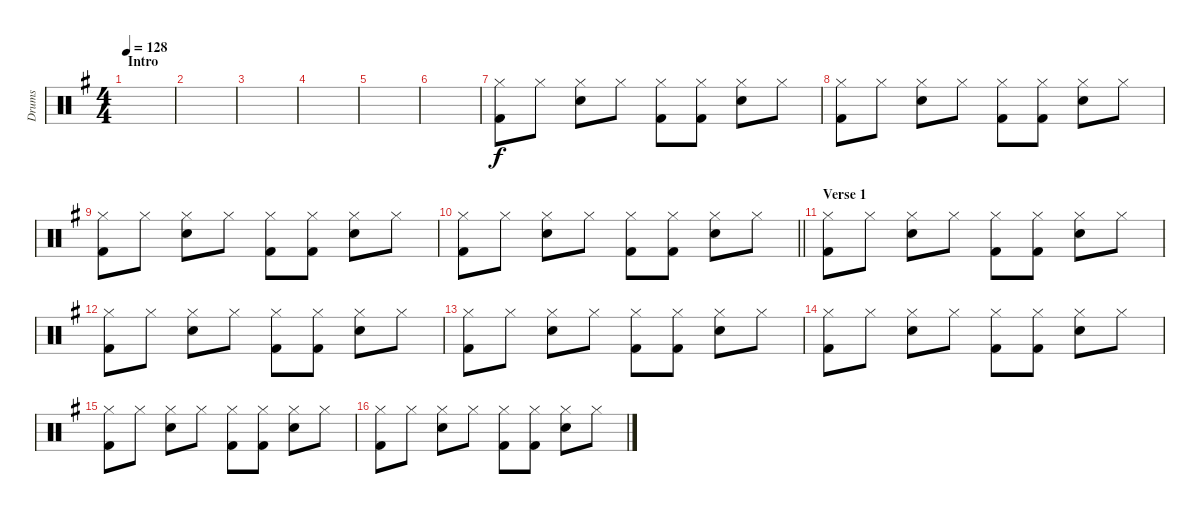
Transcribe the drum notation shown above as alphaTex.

\track ("Drums" "Drums") {instrument percussion}
\staff {score}
\articulation defaults
\ts (4 4)
\section ("" "Intro")
\tempo 128
\clef neutral
\ks g
|
|
|
|
|
|
("Hi-Hat (closed)" "Kick (hit) 2").8 "Hi-Hat (closed)".8 ("Hi-Hat (closed)" "Snare (hit) 2").8 "Hi-Hat (closed)".8 ("Hi-Hat (closed)" "Kick (hit) 2").8 ("Hi-Hat (closed)" "Kick (hit) 2").8 ("Hi-Hat (closed)" "Snare (hit) 2").8 "Hi-Hat (closed)".8 |
("Hi-Hat (closed)" "Kick (hit) 2").8 "Hi-Hat (closed)".8 ("Hi-Hat (closed)" "Snare (hit) 2").8 "Hi-Hat (closed)".8 ("Hi-Hat (closed)" "Kick (hit) 2").8 ("Hi-Hat (closed)" "Kick (hit) 2").8 ("Hi-Hat (closed)" "Snare (hit) 2").8 "Hi-Hat (closed)".8 |
("Hi-Hat (closed)" "Kick (hit) 2").8 "Hi-Hat (closed)".8 ("Hi-Hat (closed)" "Snare (hit) 2").8 "Hi-Hat (closed)".8 ("Hi-Hat (closed)" "Kick (hit) 2").8 ("Hi-Hat (closed)" "Kick (hit) 2").8 ("Hi-Hat (closed)" "Snare (hit) 2").8 "Hi-Hat (closed)".8 |
\barLineRight lightlight
("Hi-Hat (closed)" "Kick (hit) 2").8 "Hi-Hat (closed)".8 ("Hi-Hat (closed)" "Snare (hit) 2").8 "Hi-Hat (closed)".8 ("Hi-Hat (closed)" "Kick (hit) 2").8 ("Hi-Hat (closed)" "Kick (hit) 2").8 ("Hi-Hat (closed)" "Snare (hit) 2").8 "Hi-Hat (closed)".8 |
\section ("" "Verse 1")
("Hi-Hat (closed)" "Kick (hit) 2").8 "Hi-Hat (closed)".8 ("Hi-Hat (closed)" "Snare (hit) 2").8 "Hi-Hat (closed)".8 ("Hi-Hat (closed)" "Kick (hit) 2").8 ("Hi-Hat (closed)" "Kick (hit) 2").8 ("Hi-Hat (closed)" "Snare (hit) 2").8 "Hi-Hat (closed)".8 |
("Hi-Hat (closed)" "Kick (hit) 2").8 "Hi-Hat (closed)".8 ("Hi-Hat (closed)" "Snare (hit) 2").8 "Hi-Hat (closed)".8 ("Hi-Hat (closed)" "Kick (hit) 2").8 ("Hi-Hat (closed)" "Kick (hit) 2").8 ("Hi-Hat (closed)" "Snare (hit) 2").8 "Hi-Hat (closed)".8 |
("Hi-Hat (closed)" "Kick (hit) 2").8 "Hi-Hat (closed)".8 ("Hi-Hat (closed)" "Snare (hit) 2").8 "Hi-Hat (closed)".8 ("Hi-Hat (closed)" "Kick (hit) 2").8 ("Hi-Hat (closed)" "Kick (hit) 2").8 ("Hi-Hat (closed)" "Snare (hit) 2").8 "Hi-Hat (closed)".8 |
("Hi-Hat (closed)" "Kick (hit) 2").8 "Hi-Hat (closed)".8 ("Hi-Hat (closed)" "Snare (hit) 2").8 "Hi-Hat (closed)".8 ("Hi-Hat (closed)" "Kick (hit) 2").8 ("Hi-Hat (closed)" "Kick (hit) 2").8 ("Hi-Hat (closed)" "Snare (hit) 2").8 "Hi-Hat (closed)".8 |
("Hi-Hat (closed)" "Kick (hit) 2").8 "Hi-Hat (closed)".8 ("Hi-Hat (closed)" "Snare (hit) 2").8 "Hi-Hat (closed)".8 ("Hi-Hat (closed)" "Kick (hit) 2").8 ("Hi-Hat (closed)" "Kick (hit) 2").8 ("Hi-Hat (closed)" "Snare (hit) 2").8 "Hi-Hat (closed)".8 |
("Hi-Hat (closed)" "Kick (hit) 2").8 "Hi-Hat (closed)".8 ("Hi-Hat (closed)" "Snare (hit) 2").8 "Hi-Hat (closed)".8 ("Hi-Hat (closed)" "Kick (hit) 2").8 ("Hi-Hat (closed)" "Kick (hit) 2").8 ("Hi-Hat (closed)" "Snare (hit) 2").8 "Hi-Hat (closed)".8
